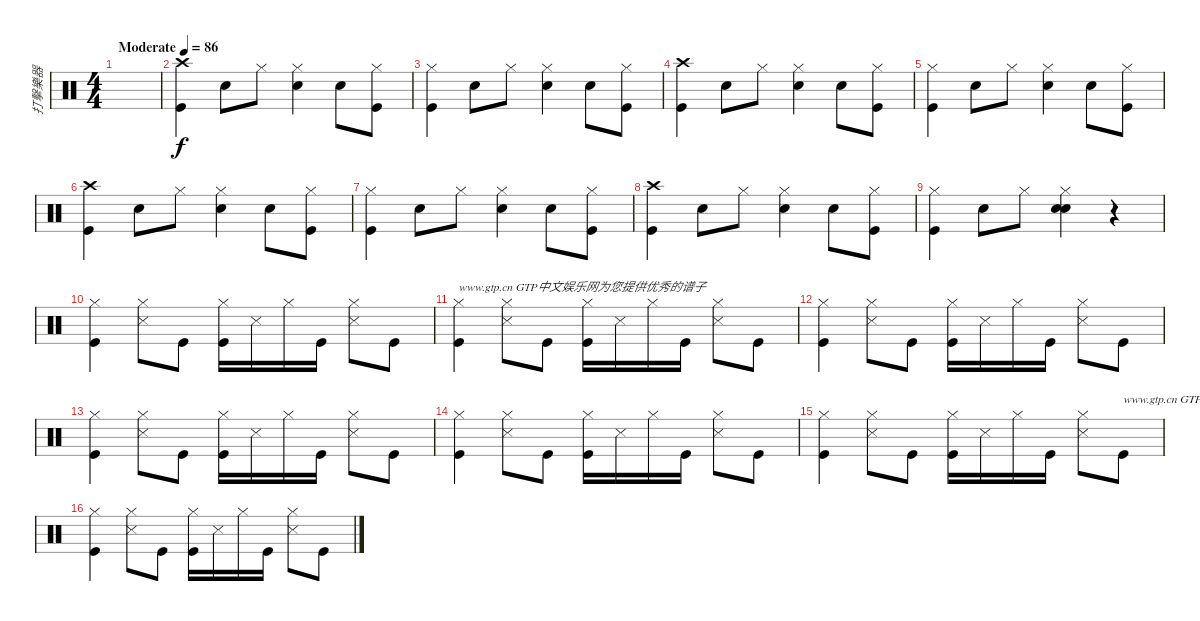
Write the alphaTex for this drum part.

\track ("打擊樂器" "打擊樂器") {instrument percussion}
\staff {score}
\articulation defaults
\ts (4 4)
\tempo (86 "Moderate")
\clef neutral
\ks c
|
("Crash high (hit)" "Kick (hit)").4 "Snare (hit) 2".8 "Hi-Hat (closed)".8 ("Hi-Hat (closed)" "Snare (hit) 2").4 "Snare (hit) 2".8 ("Hi-Hat (closed)" "Kick (hit)").8 |
("Hi-Hat (closed)" "Kick (hit)").4 "Snare (hit) 2".8 "Hi-Hat (closed)".8 ("Hi-Hat (closed)" "Snare (hit) 2").4 "Snare (hit) 2".8 ("Hi-Hat (closed)" "Kick (hit)").8 |
("Crash high (hit)" "Kick (hit)").4 "Snare (hit) 2".8 "Hi-Hat (closed)".8 ("Hi-Hat (closed)" "Snare (hit) 2").4 "Snare (hit) 2".8 ("Hi-Hat (closed)" "Kick (hit)").8 |
("Hi-Hat (closed)" "Kick (hit)").4 "Snare (hit) 2".8 "Hi-Hat (closed)".8 ("Hi-Hat (closed)" "Snare (hit) 2").4 "Snare (hit) 2".8 ("Hi-Hat (closed)" "Kick (hit)").8 |
("Crash high (hit)" "Kick (hit)").4 "Snare (hit) 2".8 "Hi-Hat (closed)".8 ("Hi-Hat (closed)" "Snare (hit) 2").4 "Snare (hit) 2".8 ("Hi-Hat (closed)" "Kick (hit)").8 |
("Hi-Hat (closed)" "Kick (hit)").4 "Snare (hit) 2".8 "Hi-Hat (closed)".8 ("Hi-Hat (closed)" "Snare (hit) 2").4 "Snare (hit) 2".8 ("Hi-Hat (closed)" "Kick (hit)").8 |
("Crash high (hit)" "Kick (hit)").4 "Snare (hit) 2".8 "Hi-Hat (closed)".8 ("Hi-Hat (closed)" "Snare (hit) 2").4 "Snare (hit) 2".8 ("Hi-Hat (closed)" "Kick (hit)").8 |
("Hi-Hat (closed)" "Kick (hit)").4 "Snare (hit) 2".8 "Hi-Hat (closed)".8 ("Hi-Hat (closed)" "Snare (hit) 2" "Snare (hit) 2").4 r.4 |
("Hi-Hat (closed)" "Kick (hit)").4 ("Hi-Hat (closed)" "Snare (side stick) 3").8 "Kick (hit)".8 ("Hi-Hat (closed)" "Kick (hit)").16 "Snare (side stick) 3".16 "Hi-Hat (closed)".16 "Kick (hit)".16 ("Hi-Hat (closed)" "Snare (side stick) 3").8 "Kick (hit)".8 |
("Hi-Hat (closed)" "Kick (hit)").4{txt "www.gtp.cn GTP中文娱乐网为您提供优秀的谱子"} ("Hi-Hat (closed)" "Snare (side stick) 3").8 "Kick (hit)".8 ("Hi-Hat (closed)" "Kick (hit)").16 "Snare (side stick) 3".16 "Hi-Hat (closed)".16 "Kick (hit)".16 ("Hi-Hat (closed)" "Snare (side stick) 3").8 "Kick (hit)".8 |
("Hi-Hat (closed)" "Kick (hit)").4 ("Hi-Hat (closed)" "Snare (side stick) 3").8 "Kick (hit)".8 ("Hi-Hat (closed)" "Kick (hit)").16 "Snare (side stick) 3".16 "Hi-Hat (closed)".16 "Kick (hit)".16 ("Hi-Hat (closed)" "Snare (side stick) 3").8 "Kick (hit)".8 |
("Hi-Hat (closed)" "Kick (hit)").4 ("Hi-Hat (closed)" "Snare (side stick) 3").8 "Kick (hit)".8 ("Hi-Hat (closed)" "Kick (hit)").16 "Snare (side stick) 3".16 "Hi-Hat (closed)".16 "Kick (hit)".16 ("Hi-Hat (closed)" "Snare (side stick) 3").8 "Kick (hit)".8 |
("Hi-Hat (closed)" "Kick (hit)").4 ("Hi-Hat (closed)" "Snare (side stick) 3").8 "Kick (hit)".8 ("Hi-Hat (closed)" "Kick (hit)").16 "Snare (side stick) 3".16 "Hi-Hat (closed)".16 "Kick (hit)".16 ("Hi-Hat (closed)" "Snare (side stick) 3").8 "Kick (hit)".8 |
("Hi-Hat (closed)" "Kick (hit)").4 ("Hi-Hat (closed)" "Snare (side stick) 3").8 "Kick (hit)".8 ("Hi-Hat (closed)" "Kick (hit)").16 "Snare (side stick) 3".16 "Hi-Hat (closed)".16 "Kick (hit)".16 ("Hi-Hat (closed)" "Snare (side stick) 3").8 "Kick (hit)".8{txt "www.gtp.cn GTP中文娱乐网为您提供优秀的谱子"} |
("Hi-Hat (closed)" "Kick (hit)").4 ("Hi-Hat (closed)" "Snare (side stick) 3").8 "Kick (hit)".8 ("Hi-Hat (closed)" "Kick (hit)").16 "Snare (side stick) 3".16 "Hi-Hat (closed)".16 "Kick (hit)".16 ("Hi-Hat (closed)" "Snare (side stick) 3").8 "Kick (hit)".8
